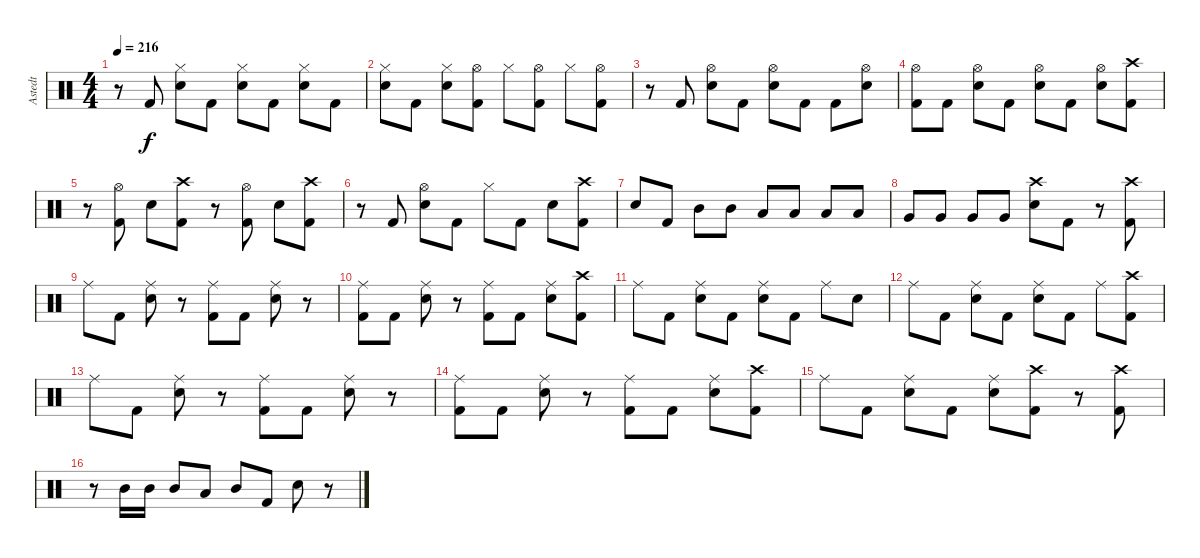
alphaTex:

\track ("Astedt" "Astedt") {instrument percussion}
\staff {score}
\articulation defaults
\ts (4 4)
\tempo 216
\clef neutral
\ks c
r.8{dy f} "Kick (hit) 2".8 ("Hi-Hat (closed)" "Snare (hit) 2").8 "Kick (hit) 2".8 ("Hi-Hat (closed)" "Snare (hit) 2").8 "Kick (hit) 2".8 ("Hi-Hat (closed)" "Snare (hit) 2").8 "Kick (hit) 2".8 |
("Hi-Hat (closed)" "Snare (hit) 2").8 "Kick (hit) 2".8 ("Hi-Hat (closed)" "Snare (hit) 2").8 ("Hi-Hat (open)" "Kick (hit) 2").8 "Hi-Hat (closed)".8 ("Hi-Hat (open)" "Kick (hit) 2").8 "Hi-Hat (closed)".8 ("Hi-Hat (open)" "Kick (hit) 2").8 |
r.8 "Kick (hit) 2".8 ("Hi-Hat (open)" "Snare (hit) 2").8 "Kick (hit) 2".8 ("Hi-Hat (open)" "Snare (hit) 2").8 "Kick (hit) 2".8 "Kick (hit) 2".8 ("Hi-Hat (open)" "Snare (hit) 2").8 |
("Hi-Hat (open)" "Kick (hit) 2").8 "Kick (hit) 2".8 ("Hi-Hat (open)" "Snare (hit) 2").8 "Kick (hit) 2".8 ("Hi-Hat (open)" "Snare (hit) 2").8 "Kick (hit) 2".8 ("Hi-Hat (open)" "Snare (hit) 2").8 ("Crash high (hit)" "Kick (hit) 2").8 |
r.8 ("Hi-Hat (open)" "Kick (hit) 2").8 "Snare (hit) 2".8 ("Crash high (hit)" "Kick (hit) 2").8 r.8 ("Hi-Hat (open)" "Kick (hit) 2").8 "Snare (hit) 2".8 ("Crash high (hit)" "Kick (hit) 2").8 |
r.8 "Kick (hit) 2".8 ("Hi-Hat (open)" "Snare (hit) 2").8 "Kick (hit) 2".8 "Hi-Hat (closed)".8 "Kick (hit) 2".8 "Snare (hit) 2".8 ("Crash high (hit)" "Kick (hit) 2").8 |
"Snare (hit) 2".8 "Kick (hit) 2".8 "Mid Tom (hit)".8 "Mid Tom (hit)".8 "Low Tom (hit)".8 "Low Tom (hit)".8 "Low Tom (hit)".8 "Low Tom (hit)".8 |
"Very Low Tom (hit)".8 "Very Low Tom (hit)".8 "Very Low Tom (hit)".8 "Very Low Tom (hit)".8 ("Crash high (hit)" "Snare (hit) 2").8 "Kick (hit) 2".8 r.8 ("Crash high (hit)" "Kick (hit) 2").8 |
"Ride (middle)".8 "Kick (hit) 2".8 ("Ride (middle)" "Snare (hit) 2").8 r.8 ("Ride (middle)" "Kick (hit) 2").8 "Kick (hit) 2".8 ("Ride (middle)" "Snare (hit) 2").8 r.8 |
("Ride (middle)" "Kick (hit) 2").8 "Kick (hit) 2".8 ("Ride (middle)" "Snare (hit) 2").8 r.8 ("Ride (middle)" "Kick (hit) 2").8 "Kick (hit) 2".8 ("Ride (middle)" "Snare (hit) 2").8 ("Crash high (hit)" "Kick (hit) 2").8 |
"Ride (middle)".8 "Kick (hit) 2".8 ("Ride (middle)" "Snare (hit) 2").8 "Kick (hit) 2".8 ("Ride (middle)" "Snare (hit) 2").8 "Kick (hit) 2".8 "Ride (middle)".8 "Snare (hit) 2".8 |
"Ride (middle)".8 "Kick (hit) 2".8 ("Ride (middle)" "Snare (hit) 2").8 "Kick (hit) 2".8 ("Ride (middle)" "Snare (hit) 2").8 "Kick (hit) 2".8 "Ride (middle)".8 ("Crash high (hit)" "Kick (hit) 2").8 |
"Ride (middle)".8 "Kick (hit) 2".8 ("Ride (middle)" "Snare (hit) 2").8 r.8 ("Ride (middle)" "Kick (hit) 2").8 "Kick (hit) 2".8 ("Ride (middle)" "Snare (hit) 2").8 r.8 |
("Ride (middle)" "Kick (hit) 2").8 "Kick (hit) 2".8 ("Ride (middle)" "Snare (hit) 2").8 r.8 ("Ride (middle)" "Kick (hit) 2").8 "Kick (hit) 2".8 ("Ride (middle)" "Snare (hit) 2").8 ("Crash high (hit)" "Kick (hit) 2").8 |
"Ride (middle)".8 "Kick (hit) 2".8 ("Ride (middle)" "Snare (hit) 2").8 "Kick (hit) 2".8 ("Ride (middle)" "Snare (hit) 2").8 ("Crash high (hit)" "Kick (hit) 2").8 r.8 ("Crash high (hit)" "Kick (hit) 2").8 |
r.8 "Mid Tom (hit)".16 "Mid Tom (hit)".16 "Mid Tom (hit)".8 "Low Tom (hit)".8 "Mid Tom (hit)".8 "Kick (hit) 2".8 "Snare (hit) 2".8 r.8
